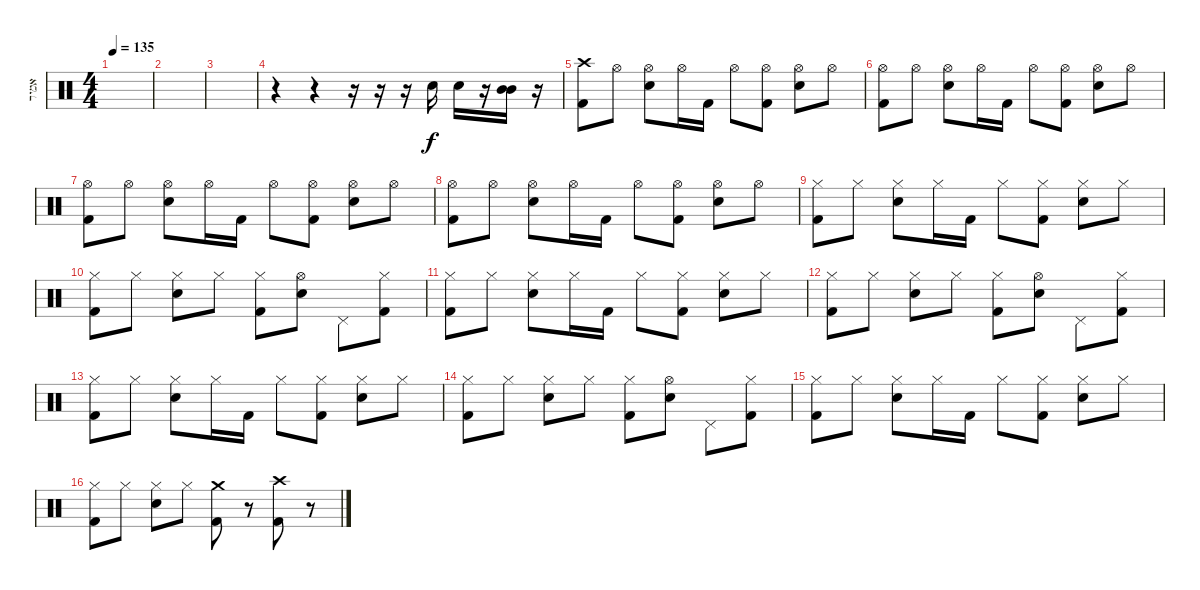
\track ("אמיר" "אמיר") {instrument percussion}
\staff {score}
\articulation defaults
\ts (4 4)
\tempo 135
\clef neutral
\ks c
|
|
|
r.4 r.4 r.16 r.16 r.16 "Snare (hit) 2".16 "Snare (hit) 2".16 r.16 ("Mid Tom (hit)" "Mid Tom (hit)").16 r.16 |
("Crash high (hit)" "Kick (hit) 2").8 "Hi-Hat (open)".8 ("Hi-Hat (open)" "Snare (hit) 2").8 "Hi-Hat (open)".16 "Kick (hit) 2".16 "Hi-Hat (open)".8 ("Hi-Hat (open)" "Kick (hit) 2").8 ("Hi-Hat (open)" "Snare (hit) 2").8 "Hi-Hat (open)".8 |
("Hi-Hat (open)" "Kick (hit) 2").8 "Hi-Hat (open)".8 ("Hi-Hat (open)" "Snare (hit) 2").8 "Hi-Hat (open)".16 "Kick (hit) 2".16 "Hi-Hat (open)".8 ("Hi-Hat (open)" "Kick (hit) 2").8 ("Hi-Hat (open)" "Snare (hit) 2").8 "Hi-Hat (open)".8 |
("Hi-Hat (open)" "Kick (hit) 2").8 "Hi-Hat (open)".8 ("Hi-Hat (open)" "Snare (hit) 2").8 "Hi-Hat (open)".16 "Kick (hit) 2".16 "Hi-Hat (open)".8 ("Hi-Hat (open)" "Kick (hit) 2").8 ("Hi-Hat (open)" "Snare (hit) 2").8 "Hi-Hat (open)".8 |
("Hi-Hat (open)" "Kick (hit) 2").8 "Hi-Hat (open)".8 ("Hi-Hat (open)" "Snare (hit) 2").8 "Hi-Hat (open)".16 "Kick (hit) 2".16 "Hi-Hat (open)".8 ("Hi-Hat (open)" "Kick (hit) 2").8 ("Hi-Hat (open)" "Snare (hit) 2").8 "Hi-Hat (open)".8 |
("Hi-Hat (closed)" "Kick (hit) 2").8 "Hi-Hat (closed)".8 ("Hi-Hat (closed)" "Snare (hit) 2").8 "Hi-Hat (closed)".16 "Kick (hit) 2".16 "Hi-Hat (closed)".8 ("Hi-Hat (closed)" "Kick (hit) 2").8 ("Hi-Hat (closed)" "Snare (hit) 2").8 "Hi-Hat (closed)".8 |
("Hi-Hat (closed)" "Kick (hit) 2").8 "Hi-Hat (closed)".8 ("Hi-Hat (closed)" "Snare (hit) 2").8 "Hi-Hat (closed)".8 ("Hi-Hat (closed)" "Kick (hit) 2").8 ("Hi-Hat (open)" "Snare (hit) 2").8 "Pedal Hi-Hat (hit)".8 ("Hi-Hat (closed)" "Kick (hit) 2").8 |
("Hi-Hat (closed)" "Kick (hit) 2").8 "Hi-Hat (closed)".8 ("Hi-Hat (closed)" "Snare (hit) 2").8 "Hi-Hat (closed)".16 "Kick (hit) 2".16 "Hi-Hat (closed)".8 ("Hi-Hat (closed)" "Kick (hit) 2").8 ("Hi-Hat (closed)" "Snare (hit) 2").8 "Hi-Hat (closed)".8 |
("Hi-Hat (closed)" "Kick (hit) 2").8 "Hi-Hat (closed)".8 ("Hi-Hat (closed)" "Snare (hit) 2").8 "Hi-Hat (closed)".8 ("Hi-Hat (closed)" "Kick (hit) 2").8 ("Hi-Hat (open)" "Snare (hit) 2").8 "Pedal Hi-Hat (hit)".8 ("Hi-Hat (closed)" "Kick (hit) 2").8 |
("Hi-Hat (closed)" "Kick (hit) 2").8 "Hi-Hat (closed)".8 ("Hi-Hat (closed)" "Snare (hit) 2").8 "Hi-Hat (closed)".16 "Kick (hit) 2".16 "Hi-Hat (closed)".8 ("Hi-Hat (closed)" "Kick (hit) 2").8 ("Hi-Hat (closed)" "Snare (hit) 2").8 "Hi-Hat (closed)".8 |
("Hi-Hat (closed)" "Kick (hit) 2").8 "Hi-Hat (closed)".8 ("Hi-Hat (closed)" "Snare (hit) 2").8 "Hi-Hat (closed)".8 ("Hi-Hat (closed)" "Kick (hit) 2").8 ("Hi-Hat (open)" "Snare (hit) 2").8 "Pedal Hi-Hat (hit)".8 ("Hi-Hat (closed)" "Kick (hit) 2").8 |
("Hi-Hat (closed)" "Kick (hit) 2").8 "Hi-Hat (closed)".8 ("Hi-Hat (closed)" "Snare (hit) 2").8 "Hi-Hat (closed)".16 "Kick (hit) 2".16 "Hi-Hat (closed)".8 ("Hi-Hat (closed)" "Kick (hit) 2").8 ("Hi-Hat (closed)" "Snare (hit) 2").8 "Hi-Hat (closed)".8 |
("Hi-Hat (closed)" "Kick (hit) 2").8 "Hi-Hat (closed)".8 ("Hi-Hat (closed)" "Snare (hit) 2").8 "Hi-Hat (closed)".8 ("Crash medium (hit)" "Kick (hit) 2").8 r.8 ("Crash high (hit)" "Kick (hit) 2").8 r.8
